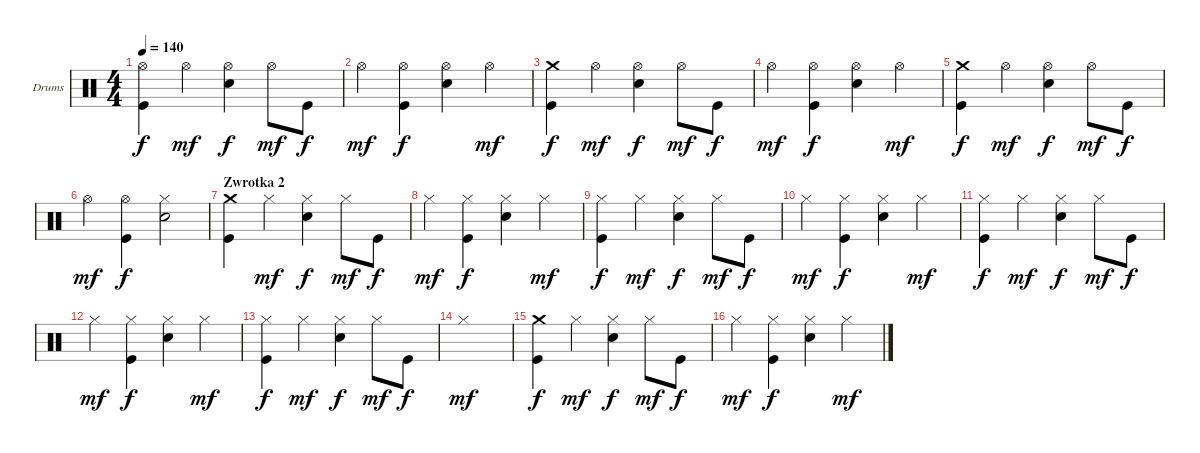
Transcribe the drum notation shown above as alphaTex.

\bracketExtendMode groupsimilarinstruments
\firstSystemTrackNameOrientation horizontal
\otherSystemsTrackNameOrientation horizontal
\track ("Drumkit" "Drums") {instrument percussion}
\staff {score}
\articulation defaults
\ts (4 4)
\tempo 140
\clef neutral
\ks c
("Kick (hit)" "Hi-Hat (open)").4{dy f} "Hi-Hat (open)".4{dy mf} ("Snare (hit) 2" "Hi-Hat (open)").4{dy f} "Hi-Hat (open)".8{dy mf} "Kick (hit)".8{dy f} |
"Hi-Hat (open)".4{dy mf} ("Kick (hit)" "Hi-Hat (open)").4{dy f} ("Snare (hit) 2" "Hi-Hat (open)").4 "Hi-Hat (open)".4{dy mf} |
("Kick (hit)" "Crash medium (hit)").4{dy f} "Hi-Hat (open)".4{dy mf} ("Snare (hit) 2" "Hi-Hat (open)").4{dy f} "Hi-Hat (open)".8{dy mf} "Kick (hit)".8{dy f} |
"Hi-Hat (open)".4{dy mf} ("Kick (hit)" "Hi-Hat (open)").4{dy f} ("Snare (hit) 2" "Hi-Hat (open)").4 "Hi-Hat (open)".4{dy mf} |
("Kick (hit)" "Crash medium (hit)").4{dy f} "Hi-Hat (open)".4{dy mf} ("Snare (hit) 2" "Hi-Hat (open)").4{dy f} "Hi-Hat (open)".8{dy mf} "Kick (hit)".8{dy f} |
"Hi-Hat (open)".4{dy mf} ("Kick (hit)" "Hi-Hat (open)").4{dy f} ("Snare (hit) 2" "Hi-Hat (closed)").2 |
\section ("" "Zwrotka 2")
("Kick (hit)" "Crash medium (hit)").4 "Hi-Hat (closed)".4{dy mf} ("Snare (hit) 2" "Hi-Hat (closed)").4{dy f} "Hi-Hat (closed)".8{dy mf} "Kick (hit)".8{dy f} |
"Hi-Hat (closed)".4{dy mf} ("Kick (hit)" "Hi-Hat (closed)").4{dy f} ("Snare (hit) 2" "Hi-Hat (closed)").4 "Hi-Hat (closed)".4{dy mf} |
("Kick (hit)" "Hi-Hat (closed)").4{dy f} "Hi-Hat (closed)".4{dy mf} ("Snare (hit) 2" "Hi-Hat (closed)").4{dy f} "Hi-Hat (closed)".8{dy mf} "Kick (hit)".8{dy f} |
"Hi-Hat (closed)".4{dy mf} ("Kick (hit)" "Hi-Hat (closed)").4{dy f} ("Snare (hit) 2" "Hi-Hat (closed)").4 "Hi-Hat (closed)".4{dy mf} |
("Kick (hit)" "Hi-Hat (closed)").4{dy f} "Hi-Hat (closed)".4{dy mf} ("Snare (hit) 2" "Hi-Hat (closed)").4{dy f} "Hi-Hat (closed)".8{dy mf} "Kick (hit)".8{dy f} |
"Hi-Hat (closed)".4{dy mf} ("Kick (hit)" "Hi-Hat (closed)").4{dy f} ("Snare (hit) 2" "Hi-Hat (closed)").4 "Hi-Hat (closed)".4{dy mf} |
("Kick (hit)" "Hi-Hat (closed)").4{dy f} "Hi-Hat (closed)".4{dy mf} ("Snare (hit) 2" "Hi-Hat (closed)").4{dy f} "Hi-Hat (closed)".8{dy mf} "Kick (hit)".8{dy f} |
"Hi-Hat (closed)".1{dy mf} |
("Kick (hit)" "Crash medium (hit)").4{dy f} "Hi-Hat (closed)".4{dy mf} ("Snare (hit) 2" "Hi-Hat (closed)").4{dy f} "Hi-Hat (closed)".8{dy mf} "Kick (hit)".8{dy f} |
"Hi-Hat (closed)".4{dy mf} ("Kick (hit)" "Hi-Hat (closed)").4{dy f} ("Snare (hit) 2" "Hi-Hat (closed)").4 "Hi-Hat (closed)".4{dy mf}
